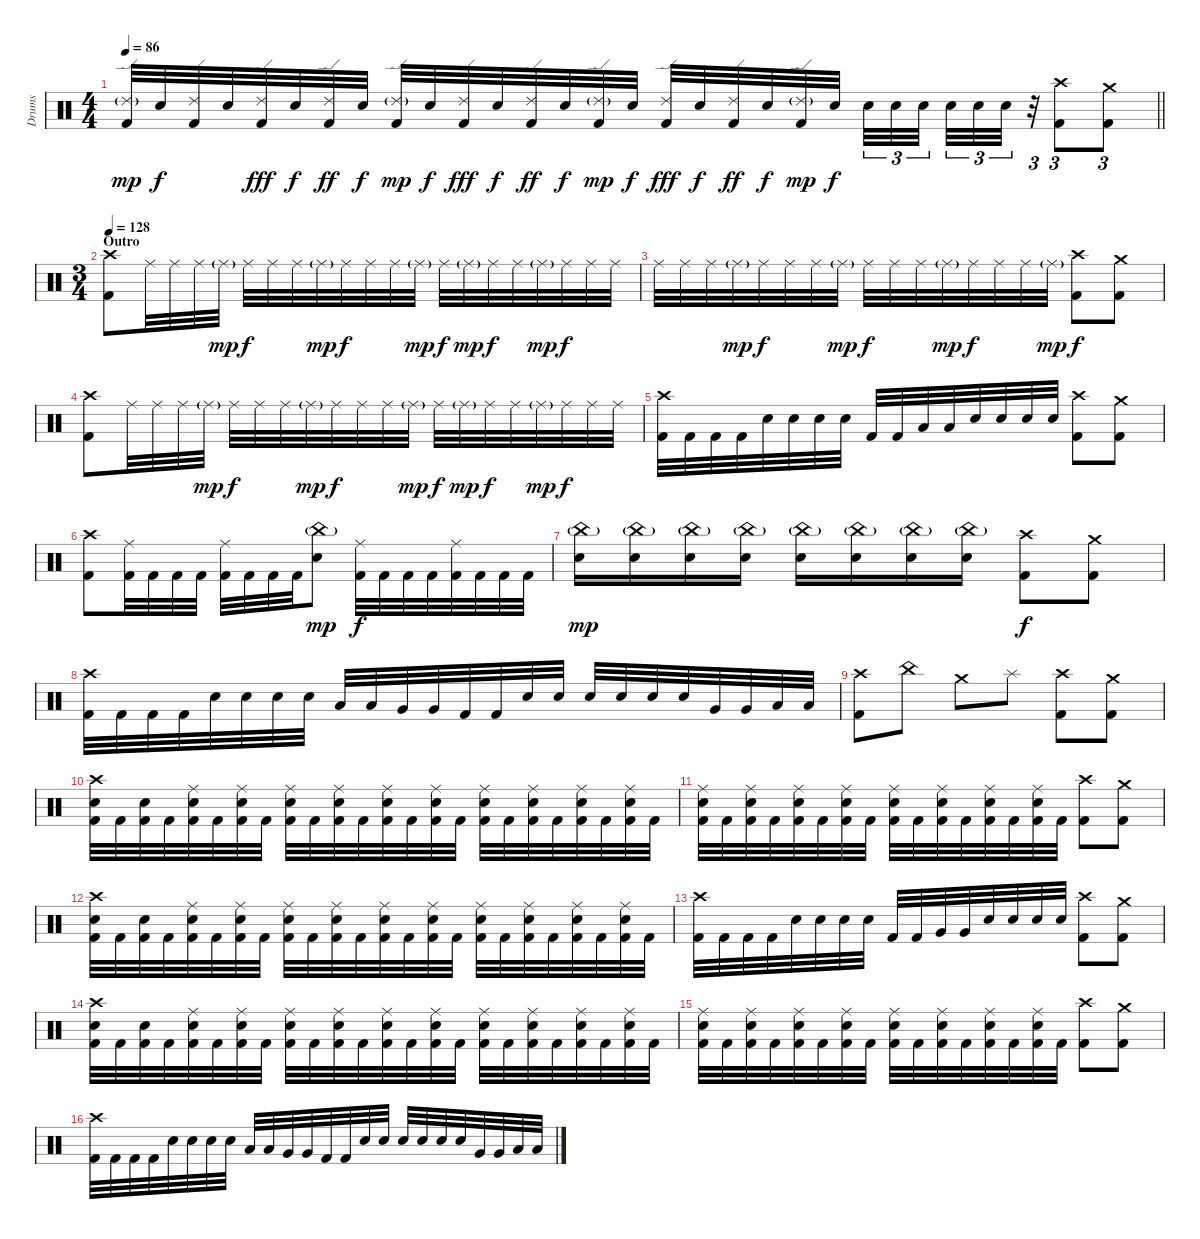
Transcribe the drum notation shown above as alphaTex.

\track ("Drums" "Drums") {instrument percussion}
\staff {score}
\articulation defaults
\ts (4 4)
\tempo 86
\clef neutral
\barLineRight lightlight
\ks c
("Ride (edge) 2"{g} "Kick (hit) 2").32{dy mp} "Snare (hit) 2".32{dy f} ("Ride (edge) 2" "Kick (hit) 2").32 "Snare (hit) 2".32 ("Ride (edge) 2" "Kick (hit) 2").32{dy fff} "Snare (hit) 2".32{dy f} ("Ride (edge) 2" "Kick (hit) 2").32{dy ff} "Snare (hit) 2".32{dy f} ("Ride (edge) 2"{g} "Kick (hit) 2").32{dy mp} "Snare (hit) 2".32{dy f} ("Ride (edge) 2" "Kick (hit) 2").32{dy fff} "Snare (hit) 2".32{dy f} ("Ride (edge) 2" "Kick (hit) 2").32{dy ff} "Snare (hit) 2".32{dy f} ("Ride (edge) 2"{g} "Kick (hit) 2").32{dy mp} "Snare (hit) 2".32{dy f} ("Ride (edge) 2" "Kick (hit) 2").32{dy fff} "Snare (hit) 2".32{dy f} ("Ride (edge) 2" "Kick (hit) 2").32{dy ff} "Snare (hit) 2".32{dy f} ("Ride (edge) 2"{g} "Kick (hit) 2").32{dy mp} "Snare (hit) 2".32{dy f beam splitsecondary} "Snare (hit) 2".32{tu (3 2)} "Snare (hit) 2".32{tu (3 2)} "Snare (hit) 2".32{tu (3 2)} "Snare (hit) 2".32{tu (3 2)} "Snare (hit) 2".32{tu (3 2)} "Snare (hit) 2".32{tu (3 2)} r.32{tu (3 2)} ("Crash high (hit)" "Kick (hit) 2").8{tu (3 2)} ("Crash medium (hit)" "Kick (hit) 2").8{tu (3 2)} |
\ts (3 4)
\section ("" "Outro")
\tempo 128
("Crash high (hit)" "Kick (hit) 2").8 "Ride (middle)".32 "Ride (middle)".32 "Ride (middle)".32 "Ride (middle)"{g}.32{dy mp} "Ride (middle)".32{dy f} "Ride (middle)".32 "Ride (middle)".32 "Ride (middle)"{g}.32{dy mp} "Ride (middle)".32{dy f} "Ride (middle)".32 "Ride (middle)".32 "Ride (middle)"{g}.32{dy mp} "Ride (middle)".32{dy f} "Ride (middle)"{g}.32{dy mp} "Ride (middle)".32{dy f} "Ride (middle)".32 "Ride (middle)"{g}.32{dy mp} "Ride (middle)".32{dy f} "Ride (middle)".32 "Ride (middle)".32 |
"Ride (middle)".32 "Ride (middle)".32 "Ride (middle)".32 "Ride (middle)"{g}.32{dy mp} "Ride (middle)".32{dy f} "Ride (middle)".32 "Ride (middle)".32 "Ride (middle)"{g}.32{dy mp} "Ride (middle)".32{dy f} "Ride (middle)".32 "Ride (middle)".32 "Ride (middle)"{g}.32{dy mp} "Ride (middle)".32{dy f} "Ride (middle)".32 "Ride (middle)".32 "Ride (middle)"{g}.32{dy mp} ("Crash high (hit)" "Kick (hit) 2").8{dy f} ("Crash medium (hit)" "Kick (hit) 2").8 |
("Crash high (hit)" "Kick (hit) 2").8 "Ride (middle)".32 "Ride (middle)".32 "Ride (middle)".32 "Ride (middle)"{g}.32{dy mp} "Ride (middle)".32{dy f} "Ride (middle)".32 "Ride (middle)".32 "Ride (middle)"{g}.32{dy mp} "Ride (middle)".32{dy f} "Ride (middle)".32 "Ride (middle)".32 "Ride (middle)"{g}.32{dy mp} "Ride (middle)".32{dy f} "Ride (middle)"{g}.32{dy mp} "Ride (middle)".32{dy f} "Ride (middle)".32 "Ride (middle)"{g}.32{dy mp} "Ride (middle)".32{dy f} "Ride (middle)".32 "Ride (middle)".32 |
("Crash high (hit)" "Kick (hit) 2").32 "Kick (hit) 2".32 "Kick (hit) 2".32 "Kick (hit) 2".32 "Snare (hit) 2".32 "Snare (hit) 2".32 "Snare (hit) 2".32 "Snare (hit) 2".32 "Kick (hit) 2".32 "Kick (hit) 2".32 "Low Tom (hit)".32 "Low Tom (hit)".32 "Snare (hit) 2".32 "Snare (hit) 2".32 "Snare (hit) 2".32 "Snare (hit) 2".32 ("Crash high (hit)" "Kick (hit) 2").8 ("Crash medium (hit)" "Kick (hit) 2").8 |
("Crash high (hit)" "Kick (hit) 2").8 ("Ride (middle)" "Kick (hit) 2").32 "Kick (hit) 2".32 "Kick (hit) 2".32 "Kick (hit) 2".32 ("Ride (middle)" "Kick (hit) 2").32 "Kick (hit) 2".32 "Kick (hit) 2".32 "Kick (hit) 2".32 ("China (hit)"{g} "Snare (hit) 2").8{dy mp} ("Ride (middle)" "Kick (hit) 2").32{dy f} "Kick (hit) 2".32 "Kick (hit) 2".32 "Kick (hit) 2".32 ("Ride (middle)" "Kick (hit) 2").32 "Kick (hit) 2".32 "Kick (hit) 2".32 "Kick (hit) 2".32 |
("China (hit)"{g} "Snare (hit) 2").16{dy mp} ("China (hit)"{g} "Snare (hit) 2").16 ("China (hit)"{g} "Snare (hit) 2").16 ("China (hit)"{g} "Snare (hit) 2").16 ("China (hit)"{g} "Snare (hit) 2").16 ("China (hit)"{g} "Snare (hit) 2").16 ("China (hit)"{g} "Snare (hit) 2").16 ("China (hit)"{g} "Snare (hit) 2").16 ("Crash high (hit)" "Kick (hit) 2").8{dy f} ("Crash medium (hit)" "Kick (hit) 2").8 |
("Crash high (hit)" "Kick (hit) 2").32 "Kick (hit) 2".32 "Kick (hit) 2".32 "Kick (hit) 2".32 "Snare (hit) 2".32 "Snare (hit) 2".32 "Snare (hit) 2".32 "Snare (hit) 2".32 "Low Tom (hit)".32 "Low Tom (hit)".32 "Very Low Tom (hit)".32 "Very Low Tom (hit)".32 "Kick (hit) 2".32 "Kick (hit) 2".32 "Snare (hit) 2".32 "Snare (hit) 2".32 "Snare (hit) 2".32 "Snare (hit) 2".32 "Snare (hit) 2".32 "Snare (hit) 2".32 "Very Low Tom (hit)".32 "Very Low Tom (hit)".32 "Low Floor Tom (hit)".32 "Low Floor Tom (hit)".32 |
("Crash high (hit)" "Kick (hit) 2").8 "China (hit)".8 "Crash medium (hit)".8 "Splash (hit)".8 ("Crash high (hit)" "Kick (hit) 2").8 ("Crash medium (hit)" "Kick (hit) 2").8 |
("Crash high (hit)" "Snare (hit) 2" "Kick (hit) 2").32 "Kick (hit) 2".32 ("Snare (hit) 2" "Kick (hit) 2").32 "Kick (hit) 2".32 ("Ride (middle)" "Snare (hit) 2" "Kick (hit) 2").32 "Kick (hit) 2".32 ("Ride (middle)" "Snare (hit) 2" "Kick (hit) 2").32 "Kick (hit) 2".32 ("Ride (middle)" "Snare (hit) 2" "Kick (hit) 2").32 "Kick (hit) 2".32 ("Ride (middle)" "Snare (hit) 2" "Kick (hit) 2").32 "Kick (hit) 2".32 ("Ride (middle)" "Snare (hit) 2" "Kick (hit) 2").32 "Kick (hit) 2".32 ("Ride (middle)" "Snare (hit) 2" "Kick (hit) 2").32 "Kick (hit) 2".32 ("Ride (middle)" "Snare (hit) 2" "Kick (hit) 2").32 "Kick (hit) 2".32 ("Ride (middle)" "Snare (hit) 2" "Kick (hit) 2").32 "Kick (hit) 2".32 ("Ride (middle)" "Snare (hit) 2" "Kick (hit) 2").32 "Kick (hit) 2".32 ("Ride (middle)" "Snare (hit) 2" "Kick (hit) 2").32 "Kick (hit) 2".32 |
("Ride (middle)" "Snare (hit) 2" "Kick (hit) 2").32 "Kick (hit) 2".32 ("Ride (middle)" "Snare (hit) 2" "Kick (hit) 2").32 "Kick (hit) 2".32 ("Ride (middle)" "Snare (hit) 2" "Kick (hit) 2").32 "Kick (hit) 2".32 ("Ride (middle)" "Snare (hit) 2" "Kick (hit) 2").32 "Kick (hit) 2".32 ("Ride (middle)" "Snare (hit) 2" "Kick (hit) 2").32 "Kick (hit) 2".32 ("Ride (middle)" "Snare (hit) 2" "Kick (hit) 2").32 "Kick (hit) 2".32 ("Ride (middle)" "Snare (hit) 2" "Kick (hit) 2").32 "Kick (hit) 2".32 ("Ride (middle)" "Snare (hit) 2" "Kick (hit) 2").32 "Kick (hit) 2".32 ("Crash high (hit)" "Kick (hit) 2").8 ("Crash medium (hit)" "Kick (hit) 2").8 |
("Crash high (hit)" "Snare (hit) 2" "Kick (hit) 2").32 "Kick (hit) 2".32 ("Snare (hit) 2" "Kick (hit) 2").32 "Kick (hit) 2".32 ("Ride (middle)" "Snare (hit) 2" "Kick (hit) 2").32 "Kick (hit) 2".32 ("Ride (middle)" "Snare (hit) 2" "Kick (hit) 2").32 "Kick (hit) 2".32 ("Ride (middle)" "Snare (hit) 2" "Kick (hit) 2").32 "Kick (hit) 2".32 ("Ride (middle)" "Snare (hit) 2" "Kick (hit) 2").32 "Kick (hit) 2".32 ("Ride (middle)" "Snare (hit) 2" "Kick (hit) 2").32 "Kick (hit) 2".32 ("Ride (middle)" "Snare (hit) 2" "Kick (hit) 2").32 "Kick (hit) 2".32 ("Ride (middle)" "Snare (hit) 2" "Kick (hit) 2").32 "Kick (hit) 2".32 ("Ride (middle)" "Snare (hit) 2" "Kick (hit) 2").32 "Kick (hit) 2".32 ("Ride (middle)" "Snare (hit) 2" "Kick (hit) 2").32 "Kick (hit) 2".32 ("Ride (middle)" "Snare (hit) 2" "Kick (hit) 2").32 "Kick (hit) 2".32 |
("Crash high (hit)" "Kick (hit) 2").32 "Kick (hit) 2".32 "Kick (hit) 2".32 "Kick (hit) 2".32 "Snare (hit) 2".32 "Snare (hit) 2".32 "Snare (hit) 2".32 "Snare (hit) 2".32 "Kick (hit) 2".32 "Kick (hit) 2".32 "Very Low Tom (hit)".32 "Very Low Tom (hit)".32 "Snare (hit) 2".32 "Snare (hit) 2".32 "Snare (hit) 2".32 "Snare (hit) 2".32 ("Crash high (hit)" "Kick (hit) 2").8 ("Crash medium (hit)" "Kick (hit) 2").8 |
("Crash high (hit)" "Snare (hit) 2" "Kick (hit) 2").32 "Kick (hit) 2".32 ("Snare (hit) 2" "Kick (hit) 2").32 "Kick (hit) 2".32 ("Ride (middle)" "Snare (hit) 2" "Kick (hit) 2").32 "Kick (hit) 2".32 ("Ride (middle)" "Snare (hit) 2" "Kick (hit) 2").32 "Kick (hit) 2".32 ("Ride (middle)" "Snare (hit) 2" "Kick (hit) 2").32 "Kick (hit) 2".32 ("Ride (middle)" "Snare (hit) 2" "Kick (hit) 2").32 "Kick (hit) 2".32 ("Ride (middle)" "Snare (hit) 2" "Kick (hit) 2").32 "Kick (hit) 2".32 ("Ride (middle)" "Snare (hit) 2" "Kick (hit) 2").32 "Kick (hit) 2".32 ("Ride (middle)" "Snare (hit) 2" "Kick (hit) 2").32 "Kick (hit) 2".32 ("Ride (middle)" "Snare (hit) 2" "Kick (hit) 2").32 "Kick (hit) 2".32 ("Ride (middle)" "Snare (hit) 2" "Kick (hit) 2").32 "Kick (hit) 2".32 ("Ride (middle)" "Snare (hit) 2" "Kick (hit) 2").32 "Kick (hit) 2".32 |
("Ride (middle)" "Snare (hit) 2" "Kick (hit) 2").32 "Kick (hit) 2".32 ("Ride (middle)" "Snare (hit) 2" "Kick (hit) 2").32 "Kick (hit) 2".32 ("Ride (middle)" "Snare (hit) 2" "Kick (hit) 2").32 "Kick (hit) 2".32 ("Ride (middle)" "Snare (hit) 2" "Kick (hit) 2").32 "Kick (hit) 2".32 ("Ride (middle)" "Snare (hit) 2" "Kick (hit) 2").32 "Kick (hit) 2".32 ("Ride (middle)" "Snare (hit) 2" "Kick (hit) 2").32 "Kick (hit) 2".32 ("Ride (middle)" "Snare (hit) 2" "Kick (hit) 2").32 "Kick (hit) 2".32 ("Ride (middle)" "Snare (hit) 2" "Kick (hit) 2").32 "Kick (hit) 2".32 ("Crash high (hit)" "Kick (hit) 2").8 ("Crash medium (hit)" "Kick (hit) 2").8 |
("Crash high (hit)" "Kick (hit) 2").32 "Kick (hit) 2".32 "Kick (hit) 2".32 "Kick (hit) 2".32 "Snare (hit) 2".32 "Snare (hit) 2".32 "Snare (hit) 2".32 "Snare (hit) 2".32 "Low Tom (hit)".32 "Low Tom (hit)".32 "Very Low Tom (hit)".32 "Very Low Tom (hit)".32 "Kick (hit) 2".32 "Kick (hit) 2".32 "Snare (hit) 2".32 "Snare (hit) 2".32 "Snare (hit) 2".32 "Snare (hit) 2".32 "Snare (hit) 2".32 "Snare (hit) 2".32 "Very Low Tom (hit)".32 "Very Low Tom (hit)".32 "Low Floor Tom (hit)".32 "Low Floor Tom (hit)".32
